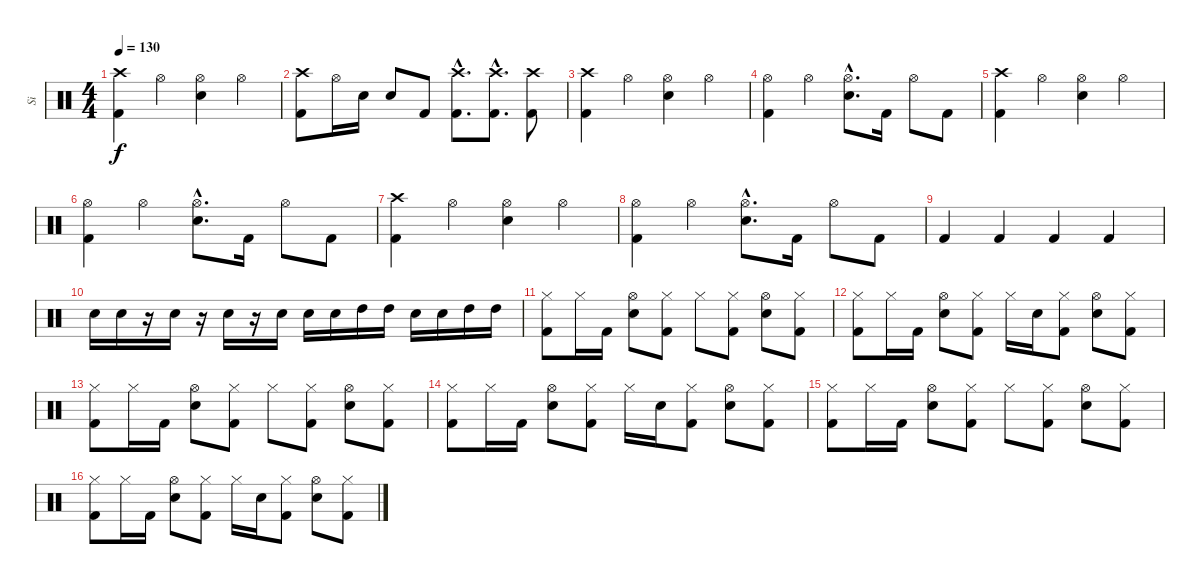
\track ("Si" "Si") {instrument percussion}
\staff {score}
\articulation defaults
\ts (4 4)
\tempo 130
\clef neutral
\ks c
("Crash high (hit)" "Kick (hit) 2").4{dy f} "Hi-Hat (open)".4 ("Hi-Hat (open)" "Electric Snare (hit)").4 "Hi-Hat (open)".4 |
("Crash high (hit)" "Kick (hit) 2").8 "Hi-Hat (open)".16 "Electric Snare (hit)".16 "Electric Snare (hit)".8 "Kick (hit) 2".8 ("Crash high (hit)"{hac} "Kick (hit) 2"{hac}).8{d} ("Crash high (hit)"{hac} "Kick (hit) 2"{hac}).8{d} ("Crash high (hit)" "Kick (hit) 2").8 |
("Crash high (hit)" "Kick (hit) 2").4 "Hi-Hat (open)".4 ("Hi-Hat (open)" "Electric Snare (hit)").4 "Hi-Hat (open)".4 |
("Hi-Hat (open)" "Kick (hit) 2").4 "Hi-Hat (open)".4 ("Hi-Hat (open)"{hac} "Electric Snare (hit)"{hac}).8{d} "Kick (hit) 2".16 "Hi-Hat (open)".8 "Kick (hit) 2".8 |
("Crash high (hit)" "Kick (hit) 2").4 "Hi-Hat (open)".4 ("Hi-Hat (open)" "Electric Snare (hit)").4 "Hi-Hat (open)".4 |
("Hi-Hat (open)" "Kick (hit) 2").4 "Hi-Hat (open)".4 ("Hi-Hat (open)"{hac} "Electric Snare (hit)"{hac}).8{d} "Kick (hit) 2".16 "Hi-Hat (open)".8 "Kick (hit) 2".8 |
("Crash high (hit)" "Kick (hit) 2").4 "Hi-Hat (open)".4 ("Hi-Hat (open)" "Electric Snare (hit)").4 "Hi-Hat (open)".4 |
("Hi-Hat (open)" "Kick (hit) 2").4 "Hi-Hat (open)".4 ("Hi-Hat (open)"{hac} "Electric Snare (hit)"{hac}).8{d} "Kick (hit) 2".16 "Hi-Hat (open)".8 "Kick (hit) 2".8 |
"Kick (hit) 2".4 "Kick (hit) 2".4 "Kick (hit) 2".4 "Kick (hit) 2".4 |
"Electric Snare (hit)".16 "Electric Snare (hit)".16 r.16 "Electric Snare (hit)".16 r.16 "Electric Snare (hit)".16 r.16 "Electric Snare (hit)".16 "Electric Snare (hit)".16 "Electric Snare (hit)".16 "High Tom (hit)".16 "High Tom (hit)".16 "Electric Snare (hit)".16 "Electric Snare (hit)".16 "High Tom (hit)".16 "High Tom (hit)".16 |
("Hi-Hat (closed)" "Kick (hit) 2").8 "Hi-Hat (closed)".16 "Kick (hit) 2".16 ("Hi-Hat (open)" "Electric Snare (hit)").8 ("Hi-Hat (closed)" "Kick (hit) 2").8 "Hi-Hat (closed)".8 ("Hi-Hat (closed)" "Kick (hit) 2").8 ("Hi-Hat (open)" "Electric Snare (hit)").8 ("Hi-Hat (closed)" "Kick (hit) 2").8 |
("Hi-Hat (closed)" "Kick (hit) 2").8 "Hi-Hat (closed)".16 "Kick (hit) 2".16 ("Hi-Hat (open)" "Electric Snare (hit)").8 ("Hi-Hat (closed)" "Kick (hit) 2").8 "Hi-Hat (closed)".16 "Electric Snare (hit)".16 ("Hi-Hat (closed)" "Kick (hit) 2").8 ("Hi-Hat (open)" "Electric Snare (hit)").8 ("Hi-Hat (closed)" "Kick (hit) 2").8 |
("Hi-Hat (closed)" "Kick (hit) 2").8 "Hi-Hat (closed)".16 "Kick (hit) 2".16 ("Hi-Hat (open)" "Electric Snare (hit)").8 ("Hi-Hat (closed)" "Kick (hit) 2").8 "Hi-Hat (closed)".8 ("Hi-Hat (closed)" "Kick (hit) 2").8 ("Hi-Hat (open)" "Electric Snare (hit)").8 ("Hi-Hat (closed)" "Kick (hit) 2").8 |
("Hi-Hat (closed)" "Kick (hit) 2").8 "Hi-Hat (closed)".16 "Kick (hit) 2".16 ("Hi-Hat (open)" "Electric Snare (hit)").8 ("Hi-Hat (closed)" "Kick (hit) 2").8 "Hi-Hat (closed)".16 "Electric Snare (hit)".16 ("Hi-Hat (closed)" "Kick (hit) 2").8 ("Hi-Hat (open)" "Electric Snare (hit)").8 ("Hi-Hat (closed)" "Kick (hit) 2").8 |
("Hi-Hat (closed)" "Kick (hit) 2").8 "Hi-Hat (closed)".16 "Kick (hit) 2".16 ("Hi-Hat (open)" "Electric Snare (hit)").8 ("Hi-Hat (closed)" "Kick (hit) 2").8 "Hi-Hat (closed)".8 ("Hi-Hat (closed)" "Kick (hit) 2").8 ("Hi-Hat (open)" "Electric Snare (hit)").8 ("Hi-Hat (closed)" "Kick (hit) 2").8 |
("Hi-Hat (closed)" "Kick (hit) 2").8 "Hi-Hat (closed)".16 "Kick (hit) 2".16 ("Hi-Hat (open)" "Electric Snare (hit)").8 ("Hi-Hat (closed)" "Kick (hit) 2").8 "Hi-Hat (closed)".16 "Electric Snare (hit)".16 ("Hi-Hat (closed)" "Kick (hit) 2").8 ("Hi-Hat (open)" "Electric Snare (hit)").8 ("Hi-Hat (closed)" "Kick (hit) 2").8
